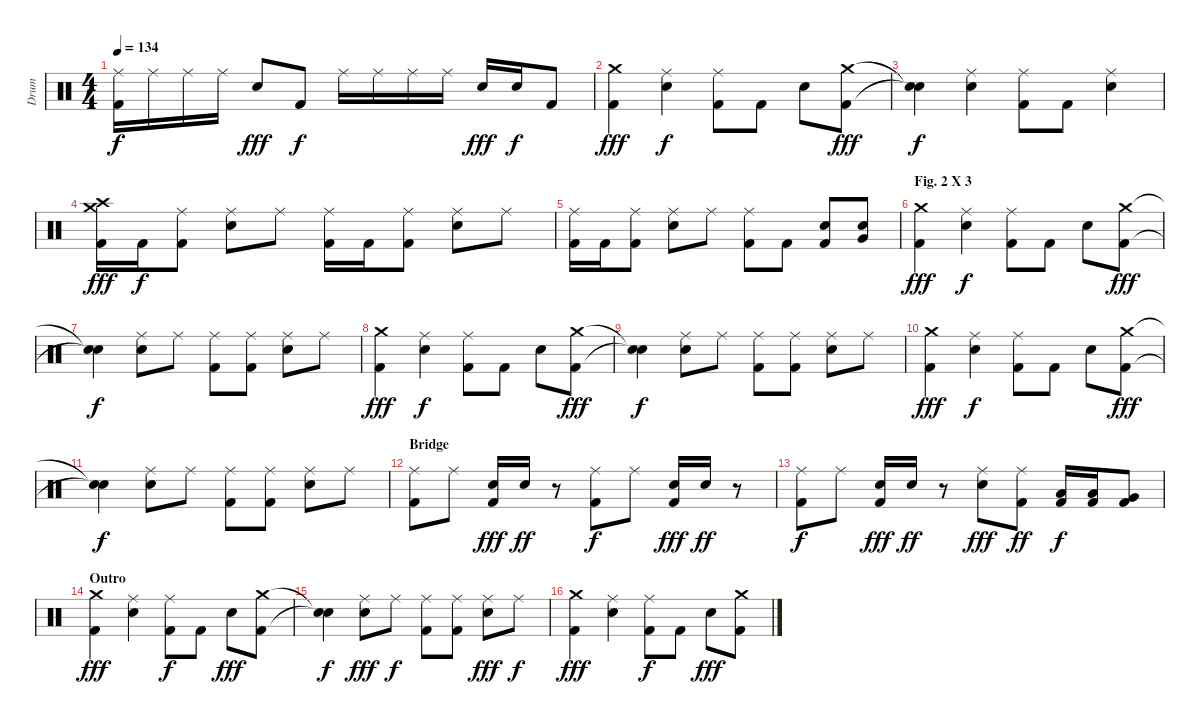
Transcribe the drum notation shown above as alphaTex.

\track ("Drum" "Drum") {instrument percussion}
\staff {score}
\articulation defaults
\ts (4 4)
\tempo 134
\clef neutral
\ks c
("Ride (middle)" "Kick (hit) 2").16{dy f} "Ride (middle)".16 "Ride (middle)".16 "Ride (middle)".16 "Snare (hit) 2".8{dy fff} "Kick (hit) 2".8{dy f} "Ride (middle)".16 "Ride (middle)".16 "Ride (middle)".16 "Ride (middle)".16 "Snare (hit) 2".16{dy fff} "Snare (hit) 2".16{dy f} "Kick (hit) 2".8 |
("Crash medium (hit)" "Kick (hit) 2").4{dy fff} ("Ride (middle)" "Snare (hit) 2").4{dy f} ("Ride (middle)" "Kick (hit) 2").8 "Kick (hit) 2".8 "Snare (hit) 2".8 ("Crash medium (hit)" "Kick (hit) 2").8{dy fff} |
("Snare (hit)"{t} "Snare (hit)"{t}).4{dy f} ("Ride (middle)" "Snare (hit) 2").4 ("Ride (middle)" "Kick (hit) 2").8 "Kick (hit) 2".8 ("Ride (middle)" "Snare (hit) 2").4 |
("Crash medium (hit)" "Crash high (hit)" "Kick (hit) 2").16{dy fff} "Kick (hit) 2".16{dy f} ("Ride (middle)" "Kick (hit) 2").8 ("Ride (middle)" "Snare (hit) 2").8 "Ride (middle)".8 ("Ride (middle)" "Kick (hit) 2").16 "Kick (hit) 2".16 ("Ride (middle)" "Kick (hit) 2").8 ("Ride (middle)" "Snare (hit) 2").8 "Ride (middle)".8 |
("Ride (middle)" "Kick (hit) 2").16 "Kick (hit) 2".16 ("Ride (middle)" "Kick (hit) 2").8 ("Ride (middle)" "Snare (hit) 2").8 "Ride (middle)".8 ("Ride (middle)" "Kick (hit) 2").8 "Kick (hit) 2".8 ("Snare (hit) 2" "Kick (hit) 2").8 ("Very Low Tom (hit)" "Snare (hit) 2").8 |
\section ("" "Fig. 2 X 3")
("Crash medium (hit)" "Kick (hit) 2").4{dy fff} ("Ride (middle)" "Snare (hit) 2").4{dy f} ("Ride (middle)" "Kick (hit) 2").8 "Kick (hit) 2".8 "Snare (hit) 2".8 ("Crash medium (hit)" "Kick (hit) 2").8{dy fff} |
("Snare (hit)"{t} "Snare (hit)"{t}).4{dy f} ("Ride (middle)" "Snare (hit) 2").8 "Ride (middle)".8 ("Ride (middle)" "Kick (hit) 2").8 ("Ride (middle)" "Kick (hit) 2").8 ("Ride (middle)" "Snare (hit) 2").8 "Ride (middle)".8 |
("Crash medium (hit)" "Kick (hit) 2").4{dy fff} ("Ride (middle)" "Snare (hit) 2").4{dy f} ("Ride (middle)" "Kick (hit) 2").8 "Kick (hit) 2".8 "Snare (hit) 2".8 ("Crash medium (hit)" "Kick (hit) 2").8{dy fff} |
("Snare (hit)"{t} "Snare (hit)"{t}).4{dy f} ("Ride (middle)" "Snare (hit) 2").8 "Ride (middle)".8 ("Ride (middle)" "Kick (hit) 2").8 ("Ride (middle)" "Kick (hit) 2").8 ("Ride (middle)" "Snare (hit) 2").8 "Ride (middle)".8 |
("Crash medium (hit)" "Kick (hit) 2").4{dy fff} ("Ride (middle)" "Snare (hit) 2").4{dy f} ("Ride (middle)" "Kick (hit) 2").8 "Kick (hit) 2".8 "Snare (hit) 2".8 ("Crash medium (hit)" "Kick (hit) 2").8{dy fff} |
("Snare (hit)"{t} "Snare (hit)"{t}).4{dy f} ("Ride (middle)" "Snare (hit) 2").8 "Ride (middle)".8 ("Ride (middle)" "Kick (hit) 2").8 ("Ride (middle)" "Kick (hit) 2").8 ("Ride (middle)" "Snare (hit) 2").8 "Ride (middle)".8 |
\section ("" "Bridge")
("Ride (middle)" "Kick (hit) 2").8 "Ride (middle)".8 ("Snare (hit) 2" "Kick (hit) 2").16{dy fff} "Snare (hit) 2".16{dy ff} r.8 ("Ride (middle)" "Kick (hit) 2").8{dy f} "Ride (middle)".8 ("Snare (hit) 2" "Kick (hit) 2").16{dy fff} "Snare (hit) 2".16{dy ff} r.8 |
("Ride (middle)" "Kick (hit) 2").8{dy f} "Ride (middle)".8 ("Snare (hit) 2" "Kick (hit) 2").16{dy fff} "Snare (hit) 2".16{dy ff} r.8 ("Ride (middle)" "Snare (hit) 2").8{dy fff} ("Ride (middle)" "Kick (hit) 2").8{dy ff} ("Low Tom (hit)" "Kick (hit) 2").16{dy f} ("Low Tom (hit)" "Kick (hit) 2").16 ("Very Low Tom (hit)" "Kick (hit) 2").8 |
\section ("" "Outro")
("Crash medium (hit)" "Kick (hit) 2").4{dy fff} ("Ride (middle)" "Snare (hit) 2").4 ("Ride (middle)" "Kick (hit) 2").8{dy f} "Kick (hit) 2".8 "Snare (hit) 2".8{dy fff} ("Crash medium (hit)" "Kick (hit) 2").8 |
("Snare (hit)"{t} "Snare (hit)"{t}).4{dy f} ("Ride (middle)" "Snare (hit) 2").8{dy fff} "Ride (middle)".8{dy f} ("Ride (middle)" "Kick (hit) 2").8 ("Ride (middle)" "Kick (hit) 2").8 ("Ride (middle)" "Snare (hit) 2").8{dy fff} "Ride (middle)".8{dy f} |
("Crash medium (hit)" "Kick (hit) 2").4{dy fff} ("Ride (middle)" "Snare (hit) 2").4 ("Ride (middle)" "Kick (hit) 2").8{dy f} "Kick (hit) 2".8 "Snare (hit) 2".8{dy fff} ("Crash medium (hit)" "Kick (hit) 2").8
